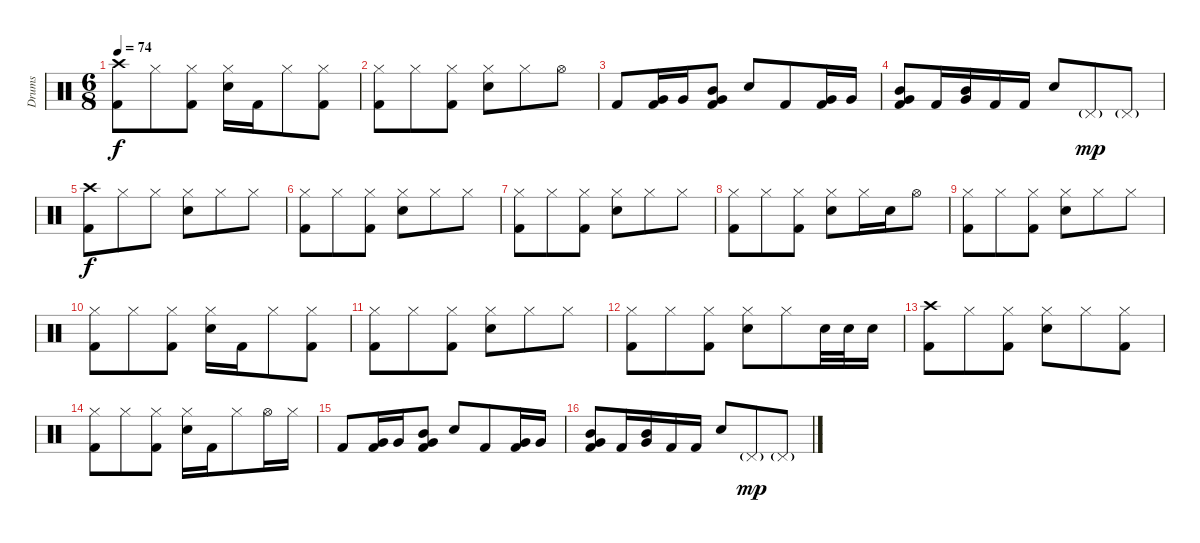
\track ("Drums" "Drums") {instrument percussion}
\staff {score}
\articulation defaults
\ts (6 8)
\tempo 74
\clef neutral
\ks c
("Crash high (hit)" "Kick (hit) 2").8{dy f} "Hi-Hat (closed)".8 ("Hi-Hat (closed)" "Kick (hit) 2").8 ("Hi-Hat (closed)" "Electric Snare (hit)").16 "Kick (hit) 2".16 "Hi-Hat (closed)".8 ("Hi-Hat (closed)" "Kick (hit) 2").8 |
("Hi-Hat (closed)" "Kick (hit) 2").8 "Hi-Hat (closed)".8 ("Hi-Hat (closed)" "Kick (hit) 2").8 ("Hi-Hat (closed)" "Electric Snare (hit)").8 "Hi-Hat (closed)".8 "Hi-Hat (open)".8 |
"Kick (hit) 2".8 ("Very Low Tom (hit)" "Kick (hit) 2").16 "Very Low Tom (hit)".16 ("Mid Tom (hit)" "Very Low Tom (hit)" "Kick (hit) 2").8 "Electric Snare (hit)".8 "Kick (hit) 2".8 ("Very Low Tom (hit)" "Kick (hit) 2").16 "Very Low Tom (hit)".16 |
("Mid Tom (hit)" "Very Low Tom (hit)" "Kick (hit) 2").8 "Kick (hit) 2".16 ("Mid Tom (hit)" "Very Low Tom (hit)").16 "Kick (hit) 2".16 "Kick (hit) 2".16 "Electric Snare (hit)".8 "Pedal Hi-Hat (hit)"{g}.8{dy mp} "Pedal Hi-Hat (hit)"{g}.8 |
("Crash high (hit)" "Kick (hit) 2").8{dy f} "Hi-Hat (closed)".8 "Hi-Hat (closed)".8 ("Hi-Hat (closed)" "Electric Snare (hit)").8 "Hi-Hat (closed)".8 "Hi-Hat (closed)".8 |
("Hi-Hat (closed)" "Kick (hit) 2").8 "Hi-Hat (closed)".8 ("Hi-Hat (closed)" "Kick (hit) 2").8 ("Hi-Hat (closed)" "Electric Snare (hit)").8 "Hi-Hat (closed)".8 "Hi-Hat (closed)".8 |
("Hi-Hat (closed)" "Kick (hit) 2").8 "Hi-Hat (closed)".8 ("Hi-Hat (closed)" "Kick (hit) 2").8 ("Hi-Hat (closed)" "Electric Snare (hit)").8 "Hi-Hat (closed)".8 "Hi-Hat (closed)".8 |
("Hi-Hat (closed)" "Kick (hit) 2").8 "Hi-Hat (closed)".8 ("Hi-Hat (closed)" "Kick (hit) 2").8 ("Hi-Hat (closed)" "Electric Snare (hit)").8 "Hi-Hat (closed)".16 "Electric Snare (hit)".16 "Hi-Hat (open)".8 |
("Hi-Hat (closed)" "Kick (hit) 2").8 "Hi-Hat (closed)".8 ("Hi-Hat (closed)" "Kick (hit) 2").8 ("Hi-Hat (closed)" "Electric Snare (hit)").8 "Hi-Hat (closed)".8 "Hi-Hat (closed)".8 |
("Hi-Hat (closed)" "Kick (hit) 2").8 "Hi-Hat (closed)".8 ("Hi-Hat (closed)" "Kick (hit) 2").8 ("Hi-Hat (closed)" "Electric Snare (hit)").16 "Kick (hit) 2".16 "Hi-Hat (closed)".8 ("Hi-Hat (closed)" "Kick (hit) 2").8 |
("Hi-Hat (closed)" "Kick (hit) 2").8 "Hi-Hat (closed)".8 ("Hi-Hat (closed)" "Kick (hit) 2").8 ("Hi-Hat (closed)" "Electric Snare (hit)").8 "Hi-Hat (closed)".8 "Hi-Hat (closed)".8 |
("Hi-Hat (closed)" "Kick (hit) 2").8 "Hi-Hat (closed)".8 ("Hi-Hat (closed)" "Kick (hit) 2").8 ("Hi-Hat (closed)" "Electric Snare (hit)").8 "Hi-Hat (closed)".8 "Electric Snare (hit)".32 "Electric Snare (hit)".32 "Electric Snare (hit)".16 |
("Crash high (hit)" "Kick (hit) 2").8 "Hi-Hat (closed)".8 ("Hi-Hat (closed)" "Kick (hit) 2").8 ("Hi-Hat (closed)" "Electric Snare (hit)").8 "Hi-Hat (closed)".8 ("Hi-Hat (closed)" "Kick (hit) 2").8 |
("Hi-Hat (closed)" "Kick (hit) 2").8 "Hi-Hat (closed)".8 ("Hi-Hat (closed)" "Kick (hit) 2").8 ("Hi-Hat (closed)" "Electric Snare (hit)").16 "Kick (hit) 2".16 "Hi-Hat (closed)".8 "Hi-Hat (open)".16 "Hi-Hat (closed)".16 |
"Kick (hit) 2".8 ("Very Low Tom (hit)" "Kick (hit) 2").16 "Very Low Tom (hit)".16 ("Mid Tom (hit)" "Very Low Tom (hit)" "Kick (hit) 2").8 "Electric Snare (hit)".8 "Kick (hit) 2".8 ("Very Low Tom (hit)" "Kick (hit) 2").16 "Very Low Tom (hit)".16 |
("Mid Tom (hit)" "Very Low Tom (hit)" "Kick (hit) 2").8 "Kick (hit) 2".16 ("Mid Tom (hit)" "Very Low Tom (hit)").16 "Kick (hit) 2".16 "Kick (hit) 2".16 "Electric Snare (hit)".8 "Pedal Hi-Hat (hit)"{g}.8{dy mp} "Pedal Hi-Hat (hit)"{g}.8
